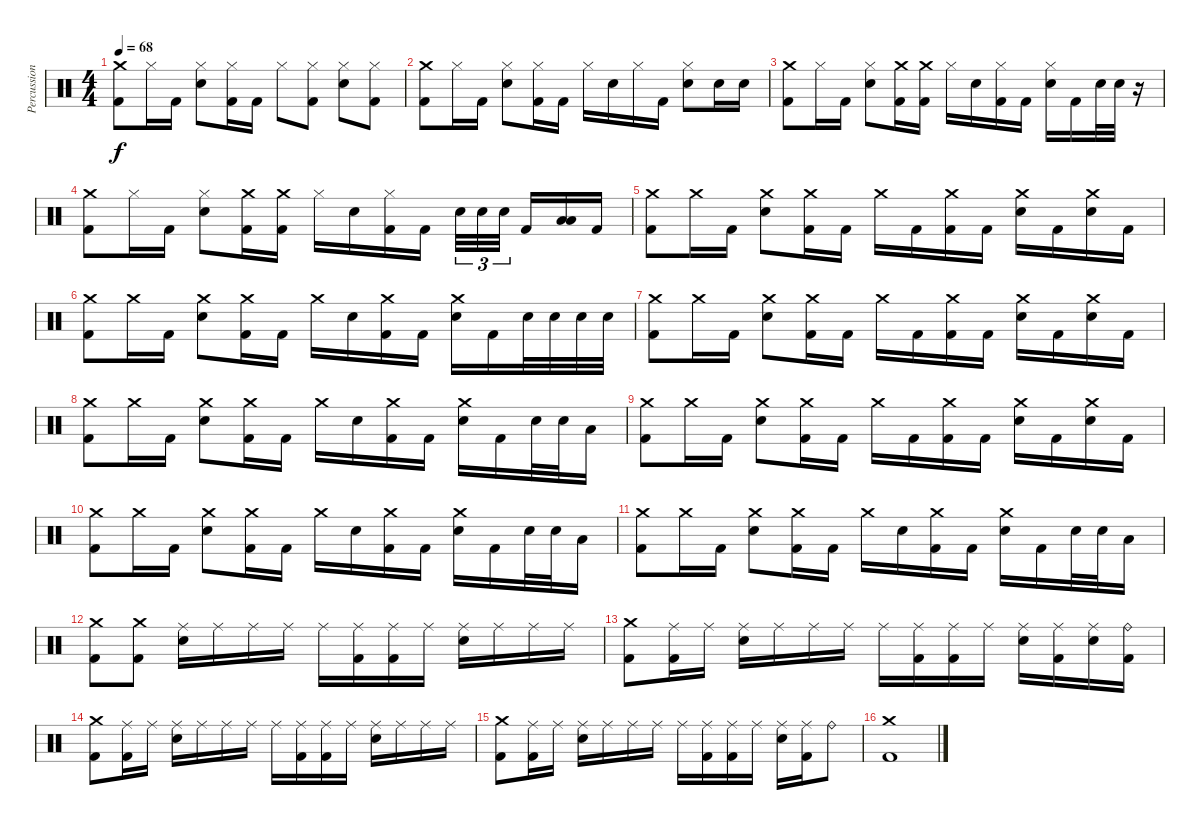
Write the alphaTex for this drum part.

\track ("Percussion" "Percussion") {instrument percussion}
\staff {score}
\articulation defaults
\ts (4 4)
\tempo 68
\clef neutral
\ks c
("Crash medium (hit)" "Kick (hit) 2").8{dy f} "Hi-Hat (closed)".16 "Kick (hit) 2".16 ("Hi-Hat (closed)" "Electric Snare (hit)").8 ("Hi-Hat (closed)" "Kick (hit) 2").16 "Kick (hit) 2".16 "Hi-Hat (closed)".8 ("Hi-Hat (closed)" "Kick (hit) 2").8 ("Hi-Hat (closed)" "Electric Snare (hit)").8 ("Hi-Hat (closed)" "Kick (hit) 2").8 |
("Crash medium (hit)" "Kick (hit) 2").8 "Hi-Hat (closed)".16 "Kick (hit) 2".16 ("Hi-Hat (closed)" "Electric Snare (hit)").8 ("Hi-Hat (closed)" "Kick (hit) 2").16 "Kick (hit) 2".16 "Hi-Hat (closed)".16 "Electric Snare (hit)".16 "Hi-Hat (closed)".16 "Kick (hit) 2".16 ("Hi-Hat (closed)" "Electric Snare (hit)").8 "Electric Snare (hit)".16 "Electric Snare (hit)".16 |
("Crash medium (hit)" "Kick (hit) 2").8 "Hi-Hat (closed)".16 "Kick (hit) 2".16 ("Hi-Hat (closed)" "Electric Snare (hit)").8 ("Crash medium (hit)" "Kick (hit) 2").16 ("Crash medium (hit)" "Kick (hit) 2").16 "Hi-Hat (closed)".16 "Electric Snare (hit)".16 ("Hi-Hat (closed)" "Kick (hit) 2").16 "Kick (hit) 2".16 ("Hi-Hat (closed)" "Electric Snare (hit)").16 "Kick (hit) 2".16 "Electric Snare (hit)".32 "Electric Snare (hit)".32 r.16 |
("Crash medium (hit)" "Kick (hit) 2").8 "Hi-Hat (closed)".16 "Kick (hit) 2".16 ("Hi-Hat (closed)" "Electric Snare (hit)").8 ("Crash medium (hit)" "Kick (hit) 2").16 ("Crash medium (hit)" "Kick (hit) 2").16 "Hi-Hat (closed)".16 "Electric Snare (hit)".16 ("Hi-Hat (closed)" "Kick (hit) 2").16 "Kick (hit) 2".16 "Electric Snare (hit)".32{tu (3 2)} "Electric Snare (hit)".32{tu (3 2)} "Electric Snare (hit)".32{tu (3 2)} "Kick (hit) 2".16 ("Low Tom (hit)" "Low Floor Tom (hit)").16 "Kick (hit) 2".16 |
("Crash medium (hit)" "Kick (hit) 2").8 "Crash medium (hit)".16 "Kick (hit) 2".16 ("Crash medium (hit)" "Electric Snare (hit)").8 ("Crash medium (hit)" "Kick (hit) 2").16 "Kick (hit) 2".16 "Crash medium (hit)".16 "Kick (hit) 2".16 ("Crash medium (hit)" "Kick (hit) 2").16 "Kick (hit) 2".16 ("Crash medium (hit)" "Electric Snare (hit)").16 "Kick (hit) 2".16 ("Crash medium (hit)" "Electric Snare (hit)").16 "Kick (hit) 2".16 |
("Crash medium (hit)" "Kick (hit) 2").8 "Crash medium (hit)".16 "Kick (hit) 2".16 ("Crash medium (hit)" "Electric Snare (hit)").8 ("Crash medium (hit)" "Kick (hit) 2").16 "Kick (hit) 2".16 "Crash medium (hit)".16 "Electric Snare (hit)".16 ("Crash medium (hit)" "Kick (hit) 2").16 "Kick (hit) 2".16 ("Crash medium (hit)" "Electric Snare (hit)").16 "Kick (hit) 2".16 "Electric Snare (hit)".32 "Electric Snare (hit)".32 "Electric Snare (hit)".32 "Electric Snare (hit)".32 |
("Crash medium (hit)" "Kick (hit) 2").8 "Crash medium (hit)".16 "Kick (hit) 2".16 ("Crash medium (hit)" "Electric Snare (hit)").8 ("Crash medium (hit)" "Kick (hit) 2").16 "Kick (hit) 2".16 "Crash medium (hit)".16 "Kick (hit) 2".16 ("Crash medium (hit)" "Kick (hit) 2").16 "Kick (hit) 2".16 ("Crash medium (hit)" "Electric Snare (hit)").16 "Kick (hit) 2".16 ("Crash medium (hit)" "Electric Snare (hit)").16 "Kick (hit) 2".16 |
("Crash medium (hit)" "Kick (hit) 2").8 "Crash medium (hit)".16 "Kick (hit) 2".16 ("Crash medium (hit)" "Electric Snare (hit)").8 ("Crash medium (hit)" "Kick (hit) 2").16 "Kick (hit) 2".16 "Crash medium (hit)".16 "Electric Snare (hit)".16 ("Crash medium (hit)" "Kick (hit) 2").16 "Kick (hit) 2".16 ("Crash medium (hit)" "Electric Snare (hit)").16 "Kick (hit) 2".16 "Electric Snare (hit)".32 "Electric Snare (hit)".32 "Low Tom (hit)".16 |
("Crash medium (hit)" "Kick (hit) 2").8 "Crash medium (hit)".16 "Kick (hit) 2".16 ("Crash medium (hit)" "Electric Snare (hit)").8 ("Crash medium (hit)" "Kick (hit) 2").16 "Kick (hit) 2".16 "Crash medium (hit)".16 "Kick (hit) 2".16 ("Crash medium (hit)" "Kick (hit) 2").16 "Kick (hit) 2".16 ("Crash medium (hit)" "Electric Snare (hit)").16 "Kick (hit) 2".16 ("Crash medium (hit)" "Electric Snare (hit)").16 "Kick (hit) 2".16 |
("Crash medium (hit)" "Kick (hit) 2").8 "Crash medium (hit)".16 "Kick (hit) 2".16 ("Crash medium (hit)" "Electric Snare (hit)").8 ("Crash medium (hit)" "Kick (hit) 2").16 "Kick (hit) 2".16 "Crash medium (hit)".16 "Electric Snare (hit)".16 ("Crash medium (hit)" "Kick (hit) 2").16 "Kick (hit) 2".16 ("Crash medium (hit)" "Electric Snare (hit)").16 "Kick (hit) 2".16 "Electric Snare (hit)".32 "Electric Snare (hit)".32 "Low Tom (hit)".16 |
("Crash medium (hit)" "Kick (hit) 2").8 "Crash medium (hit)".16 "Kick (hit) 2".16 ("Crash medium (hit)" "Electric Snare (hit)").8 ("Crash medium (hit)" "Kick (hit) 2").16 "Kick (hit) 2".16 "Crash medium (hit)".16 "Electric Snare (hit)".16 ("Crash medium (hit)" "Kick (hit) 2").16 "Kick (hit) 2".16 ("Crash medium (hit)" "Electric Snare (hit)").16 "Kick (hit) 2".16 "Electric Snare (hit)".32 "Electric Snare (hit)".32 "Low Tom (hit)".16 |
("Crash medium (hit)" "Kick (hit) 2").8 ("Crash medium (hit)" "Kick (hit) 2").8 ("Ride (middle)" "Electric Snare (hit)").16 "Ride (middle)".16 "Ride (middle)".16 "Ride (middle)".16 "Ride (middle)".16 ("Ride (middle)" "Kick (hit) 2").16 ("Ride (middle)" "Kick (hit) 2").16 "Ride (middle)".16 ("Ride (middle)" "Electric Snare (hit)").16 "Ride (middle)".16 "Ride (middle)".16 "Ride (middle)".16 |
("Crash medium (hit)" "Kick (hit) 2").8 ("Ride (middle)" "Kick (hit) 2").16 "Ride (middle)".16 ("Ride (middle)" "Electric Snare (hit)").16 "Ride (middle)".16 "Ride (middle)".16 "Ride (middle)".16 "Ride (middle)".16 ("Ride (middle)" "Kick (hit) 2").16 ("Ride (middle)" "Kick (hit) 2").16 "Ride (middle)".16 ("Ride (middle)" "Electric Snare (hit)").16 ("Ride (middle)" "Kick (hit) 2").16 ("Ride (middle)" "Electric Snare (hit)").16 ("Ride (bell)" "Kick (hit) 2").16 |
("Crash medium (hit)" "Kick (hit) 2").8 ("Ride (middle)" "Kick (hit) 2").16 "Ride (middle)".16 ("Ride (middle)" "Electric Snare (hit)").16 "Ride (middle)".16 "Ride (middle)".16 "Ride (middle)".16 "Ride (middle)".16 ("Ride (middle)" "Kick (hit) 2").16 ("Ride (middle)" "Kick (hit) 2").16 "Ride (middle)".16 ("Ride (middle)" "Electric Snare (hit)").16 "Ride (middle)".16 "Ride (middle)".16 "Ride (middle)".16 |
("Crash medium (hit)" "Kick (hit) 2").8 ("Ride (middle)" "Kick (hit) 2").16 "Ride (middle)".16 ("Ride (middle)" "Electric Snare (hit)").16 "Ride (middle)".16 "Ride (middle)".16 "Ride (middle)".16 "Ride (middle)".16 ("Ride (middle)" "Kick (hit) 2").16 ("Ride (middle)" "Kick (hit) 2").16 "Ride (middle)".16 ("Ride (middle)" "Electric Snare (hit)").16 ("Ride (middle)" "Kick (hit) 2").16 "Ride (bell)".8 |
("Crash medium (hit)" "Kick (hit) 2").1
